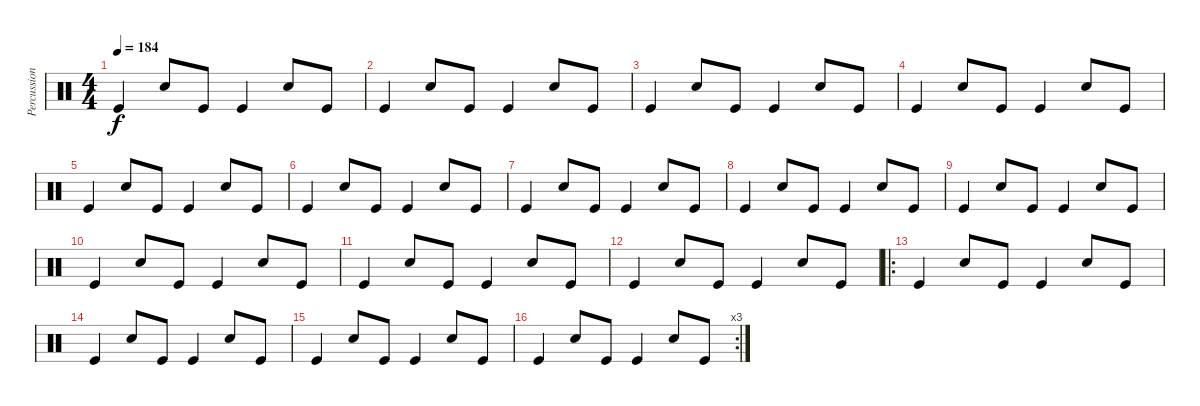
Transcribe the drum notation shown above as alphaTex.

\track ("Percussion" "Percussion") {instrument percussion}
\staff {score}
\articulation defaults
\ts (4 4)
\tempo 184
\clef neutral
\ks c "Kick (hit)".4{dy f} "Snare (hit) 2".8 "Kick (hit)".8 "Kick (hit)".4 "Snare (hit) 2".8 "Kick (hit)".8
|
"Kick (hit)".4 "Snare (hit) 2".8 "Kick (hit)".8 "Kick (hit)".4 "Snare (hit) 2".8 "Kick (hit)".8 |
"Kick (hit)".4 "Snare (hit) 2".8 "Kick (hit)".8 "Kick (hit)".4 "Snare (hit) 2".8 "Kick (hit)".8 |
"Kick (hit)".4 "Snare (hit) 2".8 "Kick (hit)".8 "Kick (hit)".4 "Snare (hit) 2".8 "Kick (hit)".8 |
"Kick (hit)".4 "Snare (hit) 2".8 "Kick (hit)".8 "Kick (hit)".4 "Snare (hit) 2".8 "Kick (hit)".8 |
"Kick (hit)".4 "Snare (hit) 2".8 "Kick (hit)".8 "Kick (hit)".4 "Snare (hit) 2".8 "Kick (hit)".8 |
"Kick (hit)".4 "Snare (hit) 2".8 "Kick (hit)".8 "Kick (hit)".4 "Snare (hit) 2".8 "Kick (hit)".8 |
"Kick (hit)".4 "Snare (hit) 2".8 "Kick (hit)".8 "Kick (hit)".4 "Snare (hit) 2".8 "Kick (hit)".8 |
"Kick (hit)".4 "Snare (hit) 2".8 "Kick (hit)".8 "Kick (hit)".4 "Snare (hit) 2".8 "Kick (hit)".8 |
"Kick (hit)".4 "Snare (hit) 2".8 "Kick (hit)".8 "Kick (hit)".4 "Snare (hit) 2".8 "Kick (hit)".8 |
"Kick (hit)".4 "Snare (hit) 2".8 "Kick (hit)".8 "Kick (hit)".4 "Snare (hit) 2".8 "Kick (hit)".8 |
"Kick (hit)".4 "Snare (hit) 2".8 "Kick (hit)".8 "Kick (hit)".4 "Snare (hit) 2".8 "Kick (hit)".8 |
\ro "Kick (hit)".4 "Snare (hit) 2".8 "Kick (hit)".8 "Kick (hit)".4 "Snare (hit) 2".8 "Kick (hit)".8
|
"Kick (hit)".4 "Snare (hit) 2".8 "Kick (hit)".8 "Kick (hit)".4 "Snare (hit) 2".8 "Kick (hit)".8 |
"Kick (hit)".4 "Snare (hit) 2".8 "Kick (hit)".8 "Kick (hit)".4 "Snare (hit) 2".8 "Kick (hit)".8 |
\rc 3 "Kick (hit)".4 "Snare (hit) 2".8 "Kick (hit)".8 "Kick (hit)".4 "Snare (hit) 2".8 "Kick (hit)".8
